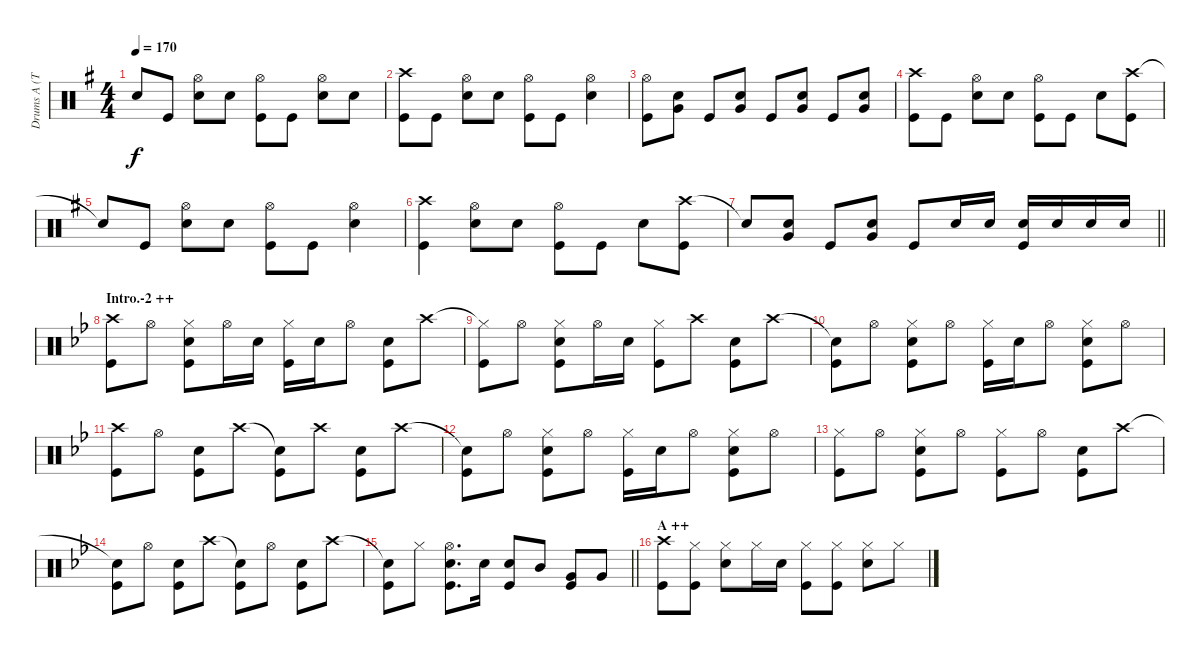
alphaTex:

\track ("Drums A (Tainaka Ritsu)" "Drums A (T") {instrument percussion}
\staff {score}
\articulation defaults
\ts (4 4)
\tempo 170
\clef neutral
\ks g "Snare (hit)"{t}.8{dy f} "Kick (hit)".8
("Hi-Hat (open)" "Snare (hit) 2").8 "Snare (hit) 2".8 ("Hi-Hat (open)" "Kick (hit)").8 "Kick (hit)".8 ("Hi-Hat (open)" "Snare (hit) 2").8 "Snare (hit) 2".8 |
("Crash high (hit)" "Kick (hit)").8 "Kick (hit)".8 ("Hi-Hat (open)" "Snare (hit) 2").8 "Snare (hit) 2".8 ("Hi-Hat (open)" "Kick (hit)").8 "Kick (hit)".8 ("Hi-Hat (open)" "Snare (hit) 2").4 |
("Hi-Hat (open)" "Kick (hit)").8 ("Snare (hit) 2" "Very Low Tom (hit)").8 "Kick (hit)".8 ("Snare (hit) 2" "Very Low Tom (hit)").8 "Kick (hit)".8 ("Snare (hit) 2" "Very Low Tom (hit)").8 "Kick (hit)".8 ("Snare (hit) 2" "Very Low Tom (hit)").8 |
("Crash high (hit)" "Kick (hit)").8 "Kick (hit)".8 ("Hi-Hat (open)" "Snare (hit) 2").8 "Snare (hit) 2".8 ("Hi-Hat (open)" "Kick (hit)").8 "Kick (hit)".8 "Snare (hit) 2".8 ("Crash high (hit)" "Kick (hit)").8 |
"Snare (hit)"{t}.8 "Kick (hit)".8 ("Hi-Hat (open)" "Snare (hit) 2").8 "Snare (hit) 2".8 ("Hi-Hat (open)" "Kick (hit)").8 "Kick (hit)".8 ("Hi-Hat (open)" "Snare (hit) 2").4 |
("Crash high (hit)" "Kick (hit)").4 ("Hi-Hat (open)" "Snare (hit) 2").8 "Snare (hit) 2".8 ("Hi-Hat (open)" "Kick (hit)").8 "Kick (hit)".8 "Snare (hit) 2".8 ("Crash high (hit)" "Kick (hit)").8 |
\barLineRight lightlight "Snare (hit)"{t}.8
("Snare (hit) 2" "Very Low Tom (hit)").8 "Kick (hit)".8 ("Snare (hit) 2" "Very Low Tom (hit)").8 "Kick (hit)".8 "Snare (hit) 2".16 "Snare (hit) 2".16 ("Snare (hit) 2" "Kick (hit)").16 "Snare (hit) 2".16 "Snare (hit) 2".16 "Snare (hit) 2".16 |
\section ("" "Intro.-2 ++")
\ks bb
("Crash high (hit)" "Kick (hit)").8 "Hi-Hat (open)".8 ("Hi-Hat (closed)" "Snare (hit) 2" "Kick (hit)").8 "Hi-Hat (open)".16 "Snare (hit) 2".16 ("Hi-Hat (closed)" "Kick (hit)").16 "Snare (hit) 2".16 "Hi-Hat (open)".8 ("Snare (hit) 2" "Kick (hit)").8 "Crash high (hit)".8 |
("Hi-Hat (closed)"{t} "Kick (hit)").8 "Hi-Hat (open)".8 ("Hi-Hat (closed)" "Snare (hit) 2" "Kick (hit)").8 "Hi-Hat (open)".16 "Snare (hit) 2".16 ("Hi-Hat (closed)" "Kick (hit)").8 "Crash high (hit)".8 ("Snare (hit) 2" "Kick (hit)").8 "Crash high (hit)".8 |
("Snare (hit)"{t} "Kick (hit)").8 "Hi-Hat (open)".8 ("Hi-Hat (closed)" "Snare (hit) 2" "Kick (hit)").8 "Hi-Hat (open)".8 ("Hi-Hat (closed)" "Kick (hit)").16 "Snare (hit) 2".16 "Hi-Hat (open)".8 ("Hi-Hat (closed)" "Snare (hit) 2" "Kick (hit)").8 "Hi-Hat (open)".8 |
("Crash high (hit)" "Kick (hit)").8 "Hi-Hat (open)".8 ("Snare (hit) 2" "Kick (hit)").8 "Crash high (hit)".8 ("Snare (hit)"{t} "Kick (hit)").8 "Crash high (hit)".8 ("Snare (hit) 2" "Kick (hit)").8 "Crash high (hit)".8 |
("Snare (hit)"{t} "Kick (hit)").8 "Hi-Hat (open)".8 ("Hi-Hat (closed)" "Snare (hit) 2" "Kick (hit)").8 "Hi-Hat (open)".8 ("Hi-Hat (closed)" "Kick (hit)").16 "Snare (hit) 2".16 "Hi-Hat (open)".8 ("Hi-Hat (closed)" "Snare (hit) 2" "Kick (hit)").8 "Hi-Hat (open)".8 |
("Hi-Hat (closed)" "Kick (hit)").8 "Hi-Hat (open)".8 ("Hi-Hat (closed)" "Snare (hit) 2" "Kick (hit)").8 "Hi-Hat (open)".8 ("Hi-Hat (closed)" "Kick (hit)").8 "Hi-Hat (open)".8 ("Snare (hit) 2" "Kick (hit)").8 "Crash high (hit)".8 |
("Snare (hit)"{t} "Kick (hit)").8 "Hi-Hat (open)".8 ("Snare (hit) 2" "Kick (hit)").8 "Crash high (hit)".8 ("Snare (hit)"{t} "Kick (hit)").8 "Hi-Hat (open)".8 ("Snare (hit) 2" "Kick (hit)").8 "Crash high (hit)".8 |
\barLineRight lightlight
("Snare (hit)"{t} "Kick (hit)").8 "Hi-Hat (closed)".8 ("Hi-Hat (open)" "Snare (hit) 2" "Kick (hit)").8{d} "Snare (hit) 2".16 ("Snare (hit) 2" "Kick (hit)").8 "Mid Tom (hit)".8 ("Very Low Tom (hit)" "Kick (hit)").8 "Very Low Tom (hit)".8 |
\section ("" "A ++")
("Crash high (hit)" "Kick (hit)").8 ("Hi-Hat (closed)" "Kick (hit)").8 ("Hi-Hat (closed)" "Snare (hit) 2").8 "Hi-Hat (closed)".16 "Snare (hit) 2".16 ("Hi-Hat (closed)" "Kick (hit)").8 ("Hi-Hat (closed)" "Kick (hit)").8 ("Hi-Hat (closed)" "Snare (hit) 2").8 "Hi-Hat (closed)".8
